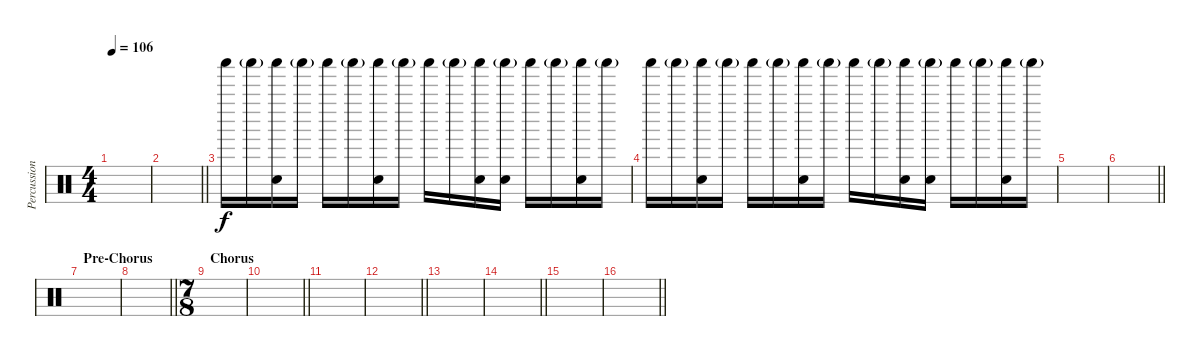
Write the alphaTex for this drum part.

\track ("Percussion 1" "Percussion") {instrument percussion}
\staff {score}
\articulation defaults
\ts (4 4)
\tempo 106
\clef neutral
\ks c
|
\barLineRight lightlight
|
"Shaker (hit)".16 "Shaker (hit)"{g}.16 ("Shaker (hit)" "Hand Clap (hit)").16 "Shaker (hit)"{g}.16 "Shaker (hit)".16 "Shaker (hit)"{g}.16 ("Shaker (hit)" "Hand Clap (hit)").16 "Shaker (hit)"{g}.16 "Shaker (hit)".16 "Shaker (hit)"{g}.16 ("Shaker (hit)" "Hand Clap (hit)").16 ("Shaker (hit)"{g} "Hand Clap (hit)").16 "Shaker (hit)".16 "Shaker (hit)"{g}.16 ("Shaker (hit)" "Hand Clap (hit)").16 "Shaker (hit)"{g}.16 |
"Shaker (hit)".16 "Shaker (hit)"{g}.16 ("Shaker (hit)" "Hand Clap (hit)").16 "Shaker (hit)"{g}.16 "Shaker (hit)".16 "Shaker (hit)"{g}.16 ("Shaker (hit)" "Hand Clap (hit)").16 "Shaker (hit)"{g}.16 "Shaker (hit)".16 "Shaker (hit)"{g}.16 ("Shaker (hit)" "Hand Clap (hit)").16 ("Shaker (hit)"{g} "Hand Clap (hit)").16 "Shaker (hit)".16 "Shaker (hit)"{g}.16 ("Shaker (hit)" "Hand Clap (hit)").16 "Shaker (hit)"{g}.16 |
|
\barLineRight lightlight
|
\section ("" "Pre-Chorus")
|
\barLineRight lightlight
|
\ts (7 8)
\section ("" "Chorus")
|
\barLineRight lightlight
|
|
\barLineRight lightlight
|
|
\barLineRight lightlight
|
|
\barLineRight lightlight
